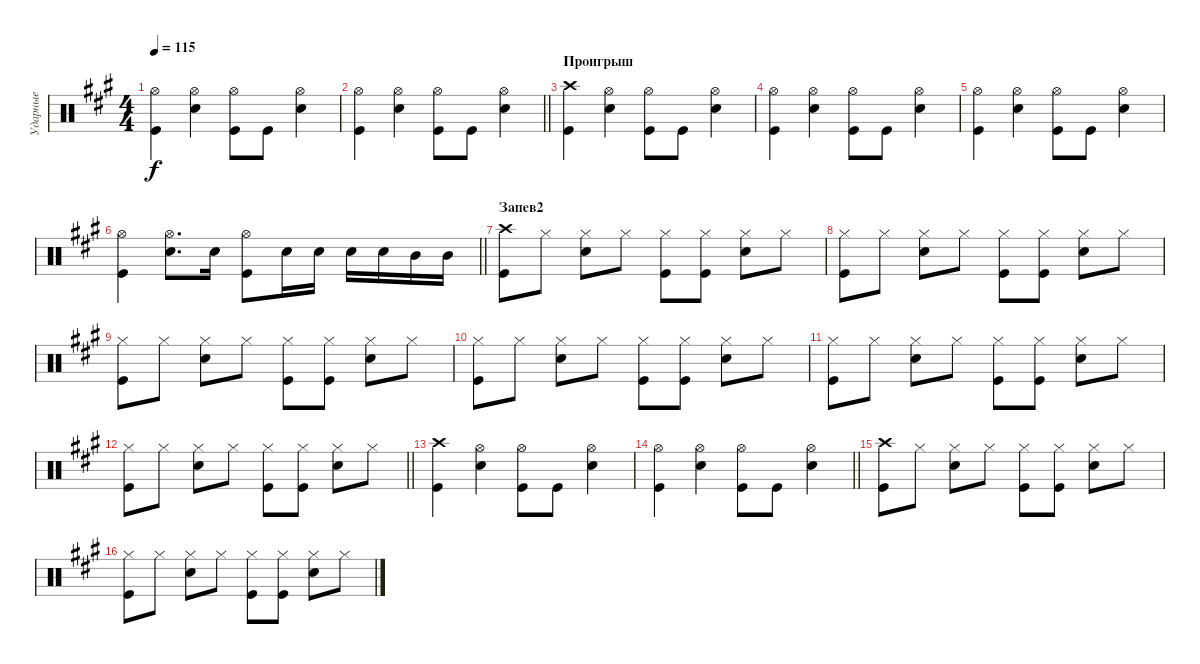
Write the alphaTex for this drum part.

\track ("Ударные" "Ударные") {instrument percussion}
\staff {score}
\articulation defaults
\ts (4 4)
\tempo 115
\clef neutral
\ks a
("Hi-Hat (open)" "Kick (hit)").4{dy f} ("Hi-Hat (open)" "Snare (hit) 2").4 ("Hi-Hat (open)" "Kick (hit)").8 "Kick (hit)".8 ("Hi-Hat (open)" "Snare (hit) 2").4 |
\barLineRight lightlight
("Hi-Hat (open)" "Kick (hit)").4 ("Hi-Hat (open)" "Snare (hit) 2").4 ("Hi-Hat (open)" "Kick (hit)").8 "Kick (hit)".8 ("Hi-Hat (open)" "Snare (hit) 2").4 |
\section ("" "Проигрыш")
("Crash high (hit)" "Kick (hit)").4 ("Hi-Hat (open)" "Snare (hit) 2").4 ("Hi-Hat (open)" "Kick (hit)").8 "Kick (hit)".8 ("Hi-Hat (open)" "Snare (hit) 2").4 |
("Hi-Hat (open)" "Kick (hit)").4 ("Hi-Hat (open)" "Snare (hit) 2").4 ("Hi-Hat (open)" "Kick (hit)").8 "Kick (hit)".8 ("Hi-Hat (open)" "Snare (hit) 2").4 |
("Hi-Hat (open)" "Kick (hit)").4 ("Hi-Hat (open)" "Snare (hit) 2").4 ("Hi-Hat (open)" "Kick (hit)").8 "Kick (hit)".8 ("Hi-Hat (open)" "Snare (hit) 2").4 |
\barLineRight lightlight
("Kick (hit)" "Hi-Hat (open)").4 ("Hi-Hat (open)" "Snare (hit) 2").8{d} "Snare (hit) 2".16 ("Kick (hit)" "Hi-Hat (open)").8 "Snare (hit) 2".16 "Snare (hit) 2".16 "Snare (hit) 2".16 "Snare (hit) 2".16 "Mid Tom (hit)".16 "Mid Tom (hit)".16 |
\section ("" "Запев2")
("Crash high (hit)" "Kick (hit)").8 "Hi-Hat (closed)".8 ("Hi-Hat (closed)" "Snare (hit) 2").8 "Hi-Hat (closed)".8 ("Hi-Hat (closed)" "Kick (hit)").8 ("Kick (hit)" "Hi-Hat (closed)").8 ("Hi-Hat (closed)" "Snare (hit) 2").8 "Hi-Hat (closed)".8 |
("Hi-Hat (closed)" "Kick (hit)").8 "Hi-Hat (closed)".8 ("Snare (hit) 2" "Hi-Hat (closed)").8 "Hi-Hat (closed)".8 ("Hi-Hat (closed)" "Kick (hit)").8 ("Kick (hit)" "Hi-Hat (closed)").8 ("Hi-Hat (closed)" "Snare (hit) 2").8 "Hi-Hat (closed)".8 |
("Hi-Hat (closed)" "Kick (hit)").8 "Hi-Hat (closed)".8 ("Snare (hit) 2" "Hi-Hat (closed)").8 "Hi-Hat (closed)".8 ("Hi-Hat (closed)" "Kick (hit)").8 ("Kick (hit)" "Hi-Hat (closed)").8 ("Hi-Hat (closed)" "Snare (hit) 2").8 "Hi-Hat (closed)".8 |
("Hi-Hat (closed)" "Kick (hit)").8 "Hi-Hat (closed)".8 ("Snare (hit) 2" "Hi-Hat (closed)").8 "Hi-Hat (closed)".8 ("Hi-Hat (closed)" "Kick (hit)").8 ("Kick (hit)" "Hi-Hat (closed)").8 ("Hi-Hat (closed)" "Snare (hit) 2").8 "Hi-Hat (closed)".8 |
("Hi-Hat (closed)" "Kick (hit)").8 "Hi-Hat (closed)".8 ("Snare (hit) 2" "Hi-Hat (closed)").8 "Hi-Hat (closed)".8 ("Hi-Hat (closed)" "Kick (hit)").8 ("Kick (hit)" "Hi-Hat (closed)").8 ("Hi-Hat (closed)" "Snare (hit) 2").8 "Hi-Hat (closed)".8 |
\barLineRight lightlight
("Hi-Hat (closed)" "Kick (hit)").8 "Hi-Hat (closed)".8 ("Snare (hit) 2" "Hi-Hat (closed)").8 "Hi-Hat (closed)".8 ("Hi-Hat (closed)" "Kick (hit)").8 ("Kick (hit)" "Hi-Hat (closed)").8 ("Hi-Hat (closed)" "Snare (hit) 2").8 "Hi-Hat (closed)".8 |
("Crash high (hit)" "Kick (hit)").4 ("Hi-Hat (open)" "Snare (hit) 2").4 ("Hi-Hat (open)" "Kick (hit)").8 "Kick (hit)".8 ("Hi-Hat (open)" "Snare (hit) 2").4 |
\barLineRight lightlight
("Hi-Hat (open)" "Kick (hit)").4 ("Hi-Hat (open)" "Snare (hit) 2").4 ("Hi-Hat (open)" "Kick (hit)").8 "Kick (hit)".8 ("Hi-Hat (open)" "Snare (hit) 2").4 |
("Crash high (hit)" "Kick (hit)").8 "Hi-Hat (closed)".8 ("Hi-Hat (closed)" "Snare (hit) 2").8 "Hi-Hat (closed)".8 ("Hi-Hat (closed)" "Kick (hit)").8 ("Kick (hit)" "Hi-Hat (closed)").8 ("Hi-Hat (closed)" "Snare (hit) 2").8 "Hi-Hat (closed)".8 |
("Hi-Hat (closed)" "Kick (hit)").8 "Hi-Hat (closed)".8 ("Snare (hit) 2" "Hi-Hat (closed)").8 "Hi-Hat (closed)".8 ("Hi-Hat (closed)" "Kick (hit)").8 ("Kick (hit)" "Hi-Hat (closed)").8 ("Hi-Hat (closed)" "Snare (hit) 2").8 "Hi-Hat (closed)".8
